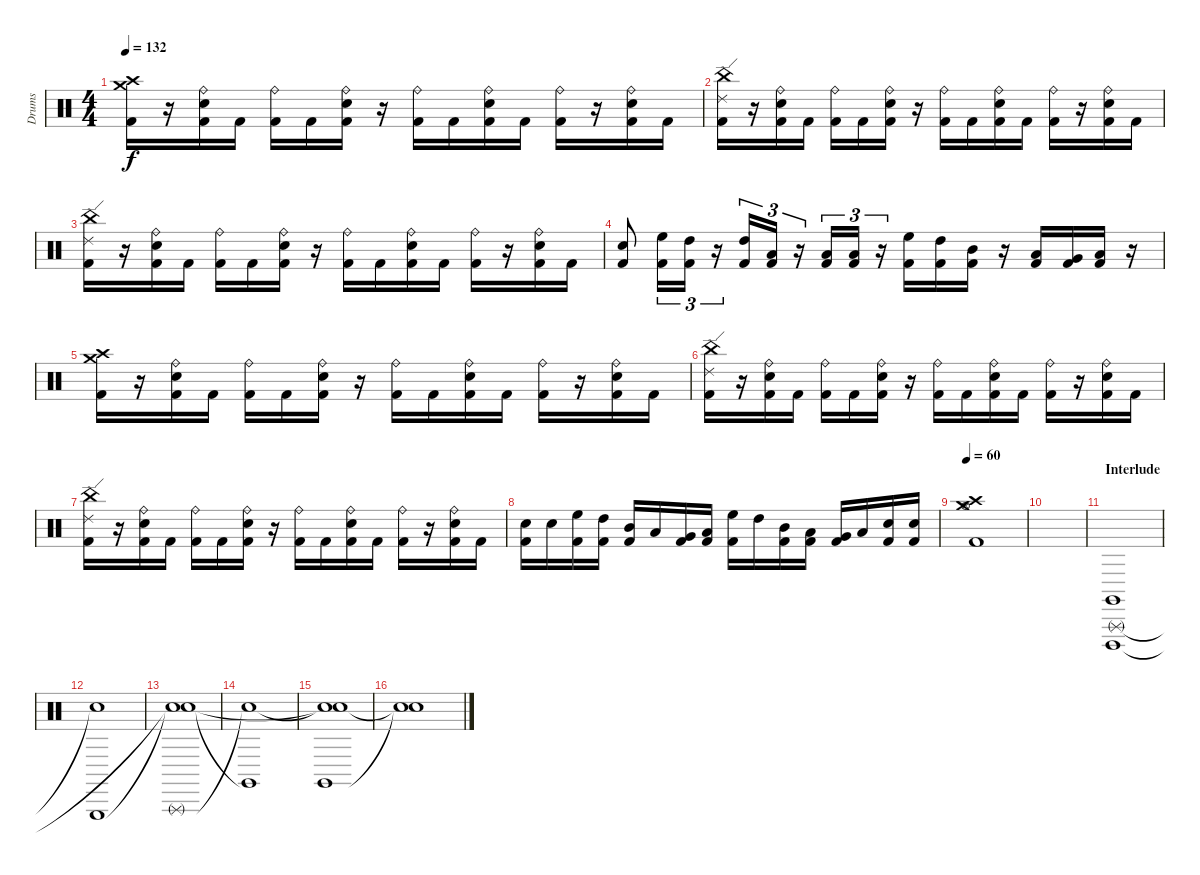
\track ("Drums" "Drums") {instrument percussion}
\staff {score}
\articulation defaults
\ts (4 4)
\tempo 132
\clef neutral
\ks c
("Crash medium (hit)" "Crash high (hit)" "Kick (hit) 2").16{dy f} r.16 ("Ride (bell)" "Electric Snare (hit)" "Kick (hit) 2").16 "Kick (hit) 2".16 ("Ride (bell)" "Kick (hit) 2").16 "Kick (hit) 2".16 ("Ride (bell)" "Electric Snare (hit)" "Kick (hit) 2").16 r.16 ("Ride (bell)" "Kick (hit) 2").16 "Kick (hit) 2".16 ("Ride (bell)" "Electric Snare (hit)" "Kick (hit) 2").16 "Kick (hit) 2".16 ("Ride (bell)" "Kick (hit) 2").16 r.16 ("Ride (bell)" "Electric Snare (hit)" "Kick (hit) 2").16 "Kick (hit) 2".16 |
("Ride (edge) 2" "China (hit)" "Kick (hit) 2").16 r.16 ("Ride (bell)" "Electric Snare (hit)" "Kick (hit) 2").16 "Kick (hit) 2".16 ("Ride (bell)" "Kick (hit) 2").16 "Kick (hit) 2".16 ("Ride (bell)" "Electric Snare (hit)" "Kick (hit) 2").16 r.16 ("Ride (bell)" "Kick (hit) 2").16 "Kick (hit) 2".16 ("Ride (bell)" "Electric Snare (hit)" "Kick (hit) 2").16 "Kick (hit) 2".16 ("Ride (bell)" "Kick (hit) 2").16 r.16 ("Ride (bell)" "Electric Snare (hit)" "Kick (hit) 2").16 "Kick (hit) 2".16 |
("Ride (edge) 2" "China (hit)" "Kick (hit) 2").16 r.16 ("Ride (bell)" "Electric Snare (hit)" "Kick (hit) 2").16 "Kick (hit) 2".16 ("Ride (bell)" "Kick (hit) 2").16 "Kick (hit) 2".16 ("Ride (bell)" "Electric Snare (hit)" "Kick (hit) 2").16 r.16 ("Ride (bell)" "Kick (hit) 2").16 "Kick (hit) 2".16 ("Ride (bell)" "Electric Snare (hit)" "Kick (hit) 2").16 "Kick (hit) 2".16 ("Ride (bell)" "Kick (hit) 2").16 r.16 ("Ride (bell)" "Electric Snare (hit)" "Kick (hit) 2").16 "Kick (hit) 2".16 |
("Electric Snare (hit)" "Kick (hit) 2").8 ("High Floor Tom (hit)" "Kick (hit) 2").16{tu (3 2)} ("High Tom (hit)" "Kick (hit) 2").16{tu (3 2)} r.16{tu (3 2)} ("High Tom (hit)" "Kick (hit) 2").16{tu (3 2)} ("Low Tom (hit)" "Kick (hit) 2").16{tu (3 2)} r.16{tu (3 2)} ("Low Tom (hit)" "Kick (hit) 2").16{tu (3 2)} ("Low Floor Tom (hit)" "Kick (hit) 2").16{tu (3 2)} r.16{tu (3 2)} ("High Floor Tom (hit)" "Kick (hit) 2").16 ("High Tom (hit)" "Kick (hit) 2").16 ("Mid Tom (hit)" "Kick (hit) 2").16 r.16 ("Low Tom (hit)" "Kick (hit) 2").16 ("Very Low Tom (hit)" "Kick (hit) 2").16 ("Low Floor Tom (hit)" "Kick (hit) 2").16 r.16 |
("Crash medium (hit)" "Crash high (hit)" "Kick (hit) 2").16 r.16 ("Ride (bell)" "Electric Snare (hit)" "Kick (hit) 2").16 "Kick (hit) 2".16 ("Ride (bell)" "Kick (hit) 2").16 "Kick (hit) 2".16 ("Ride (bell)" "Electric Snare (hit)" "Kick (hit) 2").16 r.16 ("Ride (bell)" "Kick (hit) 2").16 "Kick (hit) 2".16 ("Ride (bell)" "Electric Snare (hit)" "Kick (hit) 2").16 "Kick (hit) 2".16 ("Ride (bell)" "Kick (hit) 2").16 r.16 ("Ride (bell)" "Electric Snare (hit)" "Kick (hit) 2").16 "Kick (hit) 2".16 |
("Ride (edge) 2" "China (hit)" "Kick (hit) 2").16 r.16 ("Ride (bell)" "Electric Snare (hit)" "Kick (hit) 2").16 "Kick (hit) 2".16 ("Ride (bell)" "Kick (hit) 2").16 "Kick (hit) 2".16 ("Ride (bell)" "Electric Snare (hit)" "Kick (hit) 2").16 r.16 ("Ride (bell)" "Kick (hit) 2").16 "Kick (hit) 2".16 ("Ride (bell)" "Electric Snare (hit)" "Kick (hit) 2").16 "Kick (hit) 2".16 ("Ride (bell)" "Kick (hit) 2").16 r.16 ("Ride (bell)" "Electric Snare (hit)" "Kick (hit) 2").16 "Kick (hit) 2".16 |
("Ride (edge) 2" "China (hit)" "Kick (hit) 2").16 r.16 ("Ride (bell)" "Electric Snare (hit)" "Kick (hit) 2").16 "Kick (hit) 2".16 ("Ride (bell)" "Kick (hit) 2").16 "Kick (hit) 2".16 ("Ride (bell)" "Electric Snare (hit)" "Kick (hit) 2").16 r.16 ("Ride (bell)" "Kick (hit) 2").16 "Kick (hit) 2".16 ("Ride (bell)" "Electric Snare (hit)" "Kick (hit) 2").16 "Kick (hit) 2".16 ("Ride (bell)" "Kick (hit) 2").16 r.16 ("Ride (bell)" "Electric Snare (hit)" "Kick (hit) 2").16 "Kick (hit) 2".16 |
("Electric Snare (hit)" "Kick (hit) 2").16 "Electric Snare (hit)".16 ("High Floor Tom (hit)" "Kick (hit) 2").16 ("High Tom (hit)" "Kick (hit) 2").16 ("Mid Tom (hit)" "Kick (hit) 2").16 "Low Tom (hit)".16 ("Very Low Tom (hit)" "Kick (hit) 2").16 ("Low Floor Tom (hit)" "Kick (hit) 2").16 ("High Floor Tom (hit)" "Kick (hit) 2").16 "High Tom (hit)".16 ("Mid Tom (hit)" "Kick (hit) 2").16 ("Low Tom (hit)" "Kick (hit) 2").16 ("Very Low Tom (hit)" "Kick (hit) 2").16 "Low Floor Tom (hit)".16 ("Electric Snare (hit)" "Kick (hit) 2").16 ("Electric Snare (hit)" "Kick (hit) 2").16 |
\tempo 60
("Crash medium (hit)" "Crash high (hit)" "Hi-Hat (open)" "Kick (hit) 2").1 |
|
\section ("" "Interlude")
("Claves (hit)" "Triangle (rnute)" "Cuica (open)").1 |
("Triangle (hit)" "Snare (hit)"{t}).1 |
("Snare (hit)"{t} "Triangle (rnute)" "Snare (hit)"{t}).1 |
("Claves (hit)"{t} "Snare (hit)"{t}).1 |
("Claves (hit)" "Snare (hit)"{t} "Snare (hit)"{t}).1 |
("Snare (hit)"{t} "Snare (hit)"{t}).1
